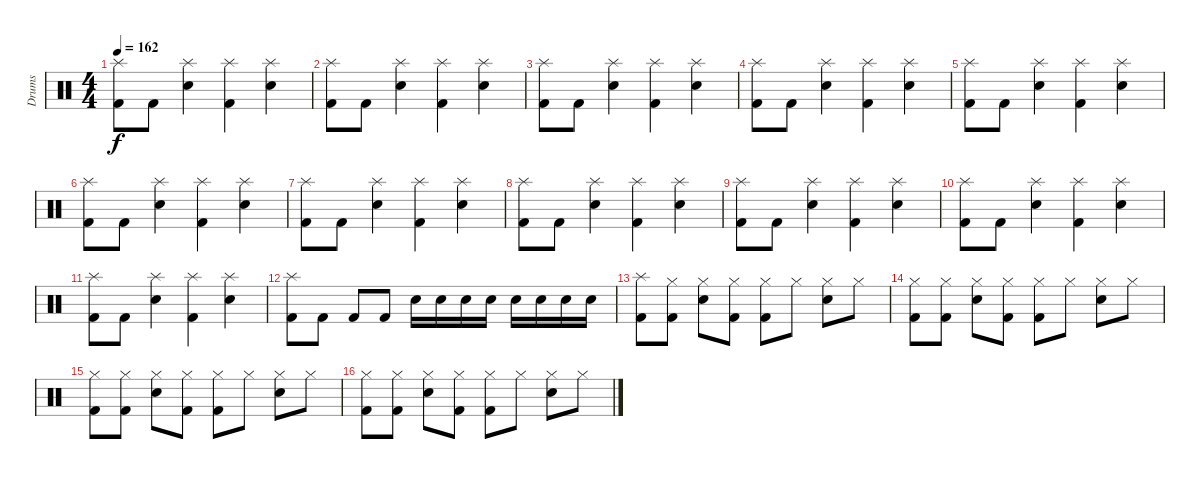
\track ("Drums" "Drums") {instrument percussion}
\staff {score}
\articulation defaults
\ts (4 4)
\tempo 162
\clef neutral
\ks c
("Splash (hit)" "Kick (hit) 2").8{dy f} "Kick (hit) 2".8 ("Splash (hit)" "Snare (hit) 2").4 ("Splash (hit)" "Kick (hit) 2").4 ("Splash (hit)" "Snare (hit) 2").4 |
("Splash (hit)" "Kick (hit) 2").8 "Kick (hit) 2".8 ("Splash (hit)" "Snare (hit) 2").4 ("Splash (hit)" "Kick (hit) 2").4 ("Splash (hit)" "Snare (hit) 2").4 |
("Splash (hit)" "Kick (hit) 2").8 "Kick (hit) 2".8 ("Splash (hit)" "Snare (hit) 2").4 ("Splash (hit)" "Kick (hit) 2").4 ("Splash (hit)" "Snare (hit) 2").4 |
("Splash (hit)" "Kick (hit) 2").8 "Kick (hit) 2".8 ("Splash (hit)" "Snare (hit) 2").4 ("Splash (hit)" "Kick (hit) 2").4 ("Splash (hit)" "Snare (hit) 2").4 |
("Splash (hit)" "Kick (hit) 2").8 "Kick (hit) 2".8 ("Splash (hit)" "Snare (hit) 2").4 ("Splash (hit)" "Kick (hit) 2").4 ("Splash (hit)" "Snare (hit) 2").4 |
("Splash (hit)" "Kick (hit) 2").8 "Kick (hit) 2".8 ("Splash (hit)" "Snare (hit) 2").4 ("Splash (hit)" "Kick (hit) 2").4 ("Splash (hit)" "Snare (hit) 2").4 |
("Splash (hit)" "Kick (hit) 2").8 "Kick (hit) 2".8 ("Splash (hit)" "Snare (hit) 2").4 ("Splash (hit)" "Kick (hit) 2").4 ("Splash (hit)" "Snare (hit) 2").4 |
("Splash (hit)" "Kick (hit) 2").8 "Kick (hit) 2".8 ("Splash (hit)" "Snare (hit) 2").4 ("Splash (hit)" "Kick (hit) 2").4 ("Splash (hit)" "Snare (hit) 2").4 |
("Splash (hit)" "Kick (hit) 2").8 "Kick (hit) 2".8 ("Splash (hit)" "Snare (hit) 2").4 ("Splash (hit)" "Kick (hit) 2").4 ("Splash (hit)" "Snare (hit) 2").4 |
("Splash (hit)" "Kick (hit) 2").8 "Kick (hit) 2".8 ("Splash (hit)" "Snare (hit) 2").4 ("Splash (hit)" "Kick (hit) 2").4 ("Splash (hit)" "Snare (hit) 2").4 |
("Splash (hit)" "Kick (hit) 2").8 "Kick (hit) 2".8 ("Splash (hit)" "Snare (hit) 2").4 ("Splash (hit)" "Kick (hit) 2").4 ("Splash (hit)" "Snare (hit) 2").4 |
("Splash (hit)" "Kick (hit) 2").8 "Kick (hit) 2".8 "Kick (hit) 2".8 "Kick (hit) 2".8 "Snare (hit) 2".16 "Snare (hit) 2".16 "Snare (hit) 2".16 "Snare (hit) 2".16 "Snare (hit) 2".16 "Snare (hit) 2".16 "Snare (hit) 2".16 "Snare (hit) 2".16 |
("Splash (hit)" "Kick (hit) 2").8 ("Hi-Hat (closed)" "Kick (hit) 2").8 ("Hi-Hat (closed)" "Snare (hit) 2").8 ("Hi-Hat (closed)" "Kick (hit) 2").8 ("Hi-Hat (closed)" "Kick (hit) 2").8 "Hi-Hat (closed)".8 ("Hi-Hat (closed)" "Snare (hit) 2").8 "Hi-Hat (closed)".8 |
("Hi-Hat (closed)" "Kick (hit) 2").8 ("Hi-Hat (closed)" "Kick (hit) 2").8 ("Hi-Hat (closed)" "Snare (hit) 2").8 ("Hi-Hat (closed)" "Kick (hit) 2").8 ("Hi-Hat (closed)" "Kick (hit) 2").8 "Hi-Hat (closed)".8 ("Hi-Hat (closed)" "Snare (hit) 2").8 "Hi-Hat (closed)".8 |
("Hi-Hat (closed)" "Kick (hit) 2").8 ("Hi-Hat (closed)" "Kick (hit) 2").8 ("Hi-Hat (closed)" "Snare (hit) 2").8 ("Hi-Hat (closed)" "Kick (hit) 2").8 ("Hi-Hat (closed)" "Kick (hit) 2").8 "Hi-Hat (closed)".8 ("Hi-Hat (closed)" "Snare (hit) 2").8 "Hi-Hat (closed)".8 |
("Hi-Hat (closed)" "Kick (hit) 2").8 ("Hi-Hat (closed)" "Kick (hit) 2").8 ("Hi-Hat (closed)" "Snare (hit) 2").8 ("Hi-Hat (closed)" "Kick (hit) 2").8 ("Hi-Hat (closed)" "Kick (hit) 2").8 "Hi-Hat (closed)".8 ("Hi-Hat (closed)" "Snare (hit) 2").8 "Hi-Hat (closed)".8
